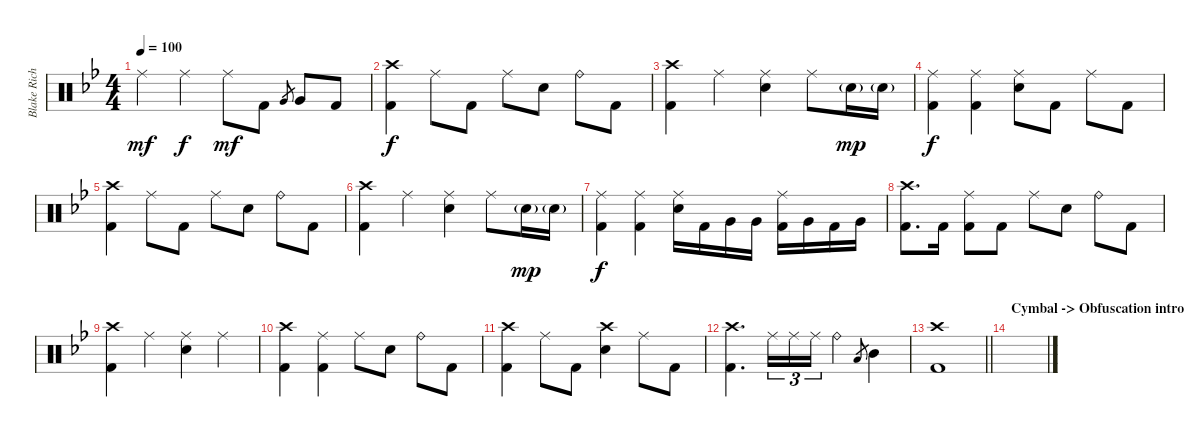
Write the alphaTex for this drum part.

\track ("Blake Richardson - Drums" "Blake Rich") {instrument percussion}
\staff {score}
\articulation defaults
\ts (4 4)
\tempo 100
\clef neutral
\ks gminor "Ride (middle)".4{dy mf} "Ride (middle)".4{dy f} "Ride (middle)".8{dy mf} "Kick (hit) 2".8 "Very Low Tom (hit)".8{gr} "Very Low Tom (hit)".8 "Kick (hit) 2".8
|
("Crash high (hit)" "Kick (hit) 2").4{dy f} "Ride (middle)".8 "Kick (hit) 2".8 "Ride (middle)".8 "Electric Snare (hit)".8 "Ride (bell)".8 "Kick (hit) 2".8 |
("Kick (hit) 2" "Crash high (hit)").4 "Ride (middle)".4 ("Ride (middle)" "Electric Snare (hit)").4 "Ride (middle)".8 "Electric Snare (hit)"{g}.16{dy mp} "Electric Snare (hit)"{g}.16 |
("Ride (middle)" "Kick (hit) 2").4{dy f} ("Ride (middle)" "Kick (hit) 2").4 ("Electric Snare (hit)" "Ride (middle)").8 "Kick (hit) 2".8 "Ride (middle)".8 "Kick (hit) 2".8 |
("Crash high (hit)" "Kick (hit) 2").4 "Ride (middle)".8 "Kick (hit) 2".8 "Ride (middle)".8 "Electric Snare (hit)".8 "Ride (bell)".8 "Kick (hit) 2".8 |
("Kick (hit) 2" "Crash high (hit)").4 "Ride (middle)".4 ("Ride (middle)" "Electric Snare (hit)").4 "Ride (middle)".8 "Electric Snare (hit)"{g}.16{dy mp} "Electric Snare (hit)"{g}.16 |
("Ride (middle)" "Kick (hit) 2").4{dy f} ("Ride (middle)" "Kick (hit) 2").4 ("Ride (middle)" "Electric Snare (hit)").16 "Kick (hit) 2".16 "Very Low Tom (hit)".16 "Very Low Tom (hit)".16 ("Kick (hit) 2" "Ride (middle)").16 "Very Low Tom (hit)".16 "Kick (hit) 2".16 "Very Low Tom (hit)".16 |
("Crash high (hit)" "Kick (hit) 2").8{d} "Kick (hit) 2".16 ("Kick (hit) 2" "Ride (middle)").8 "Kick (hit) 2".8 "Ride (middle)".8 "Electric Snare (hit)".8 "Ride (bell)".8 "Kick (hit) 2".8 |
("Crash high (hit)" "Kick (hit) 2").4 "Ride (middle)".4 ("Ride (middle)" "Electric Snare (hit)").4 "Ride (middle)".4 |
("Crash high (hit)" "Kick (hit) 2").4 ("Ride (middle)" "Kick (hit) 2").4 "Ride (middle)".8 "Electric Snare (hit)".8 "Ride (bell)".8 "Kick (hit) 2".8 |
("Crash high (hit)" "Kick (hit) 2").4 "Ride (middle)".8 "Kick (hit) 2".8 ("Crash high (hit)" "Electric Snare (hit)").4 "Ride (middle)".8 "Kick (hit) 2".8 |
("Crash high (hit)" "Kick (hit) 2").4{d} "Ride (middle)".16{tu (3 2)} "Ride (middle)".16{tu (3 2)} "Ride (middle)".16{tu (3 2)} "Ride (bell)".4 "Low Tom (hit)".8{gr} "Mid Tom (hit)".4 |
\barLineRight lightlight
("Crash high (hit)" "Kick (hit) 2").1 |
\section ("" "Cymbal -> Obfuscation intro")
